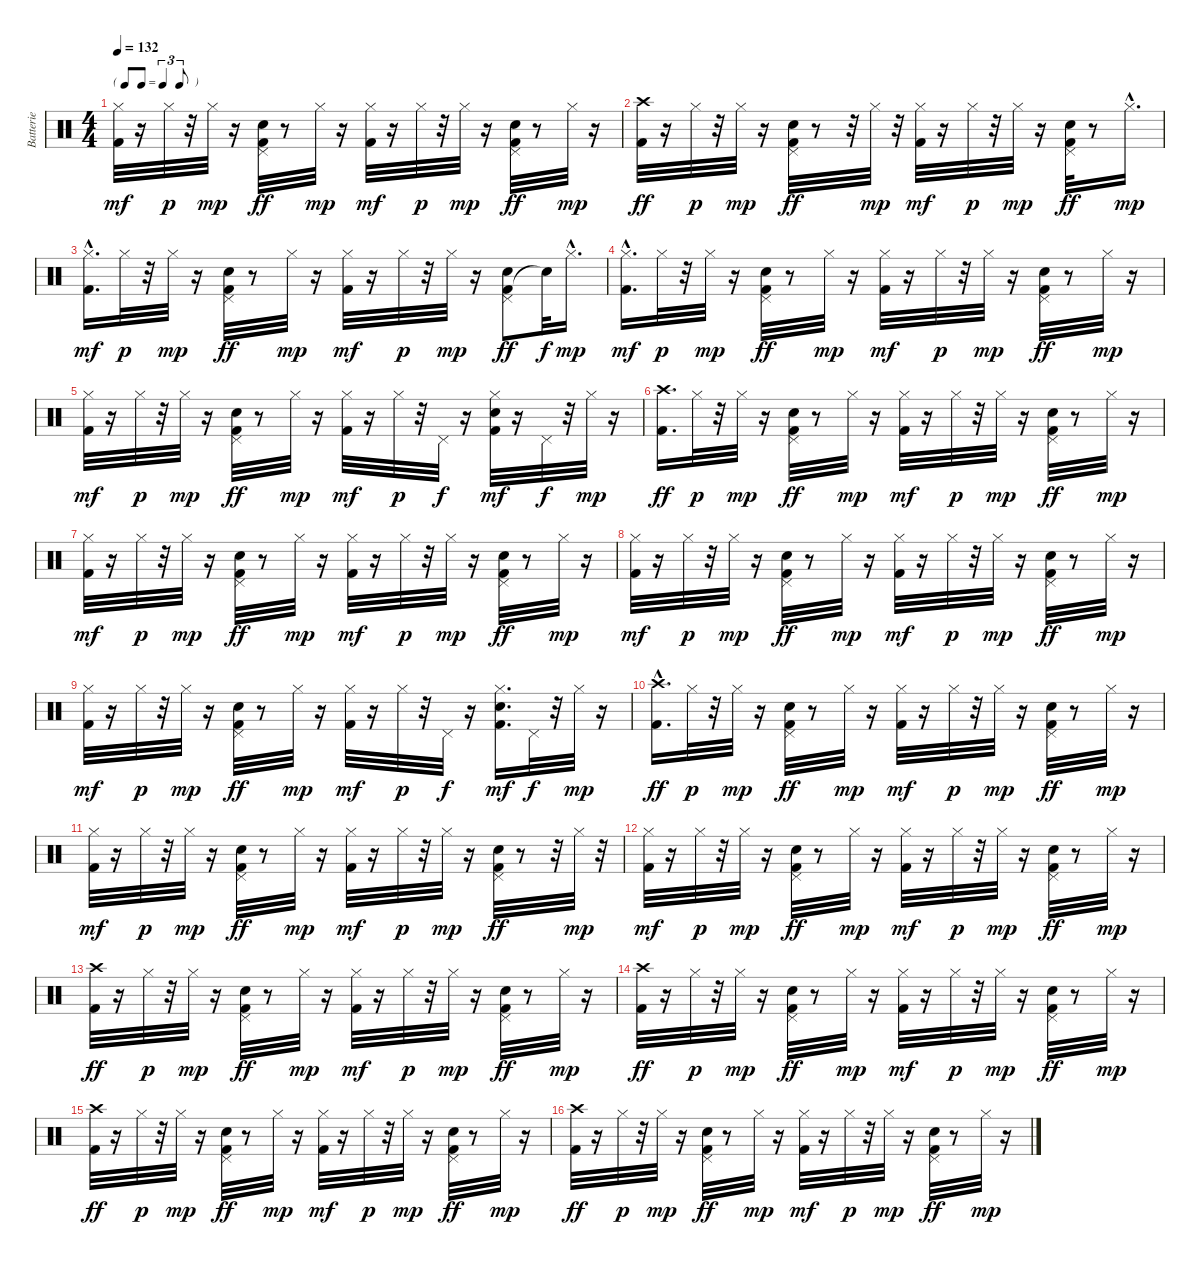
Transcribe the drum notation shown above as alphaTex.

\track ("Batterie" "Batterie") {instrument percussion}
\staff {score}
\articulation defaults
\ts (4 4)
\tf triplet8th
\tempo 132
\clef neutral
\ks c
("Kick (hit) 2" "Hi-Hat (closed)").32{dy mf} r.16 "Hi-Hat (closed)".32{dy p} r.32 "Hi-Hat (closed)".32{dy mp} r.16 ("Kick (hit) 2" "Snare (hit) 2" "Pedal Hi-Hat (hit)").32{dy ff} r.8 "Hi-Hat (closed)".32{dy mp} r.16 ("Kick (hit) 2" "Hi-Hat (closed)").32{dy mf} r.16 "Hi-Hat (closed)".32{dy p} r.32 "Hi-Hat (closed)".32{dy mp} r.16 ("Kick (hit) 2" "Snare (hit) 2" "Pedal Hi-Hat (hit)").32{dy ff} r.8 "Hi-Hat (closed)".32{dy mp} r.16 |
("Kick (hit) 2" "Crash high (hit)").32{dy ff} r.16 "Hi-Hat (closed)".32{dy p} r.32 "Hi-Hat (closed)".32{dy mp} r.16 ("Kick (hit) 2" "Snare (hit) 2" "Pedal Hi-Hat (hit)").32{dy ff} r.8 r.32 "Hi-Hat (closed)".32{dy mp} r.32 ("Kick (hit) 2" "Hi-Hat (closed)").32{dy mf} r.16 "Hi-Hat (closed)".32{dy p} r.32 "Hi-Hat (closed)".32{dy mp} r.16 ("Kick (hit) 2" "Snare (hit) 2" "Pedal Hi-Hat (hit)").32{dy ff} r.8 "Hi-Hat (closed)"{hac}.16{d dy mp} |
("Kick (hit) 2" "Hi-Hat (closed)"{hac}).16{d dy mf} "Hi-Hat (closed)".32{dy p} r.32 "Hi-Hat (closed)".32{dy mp} r.16 ("Kick (hit) 2" "Snare (hit) 2" "Pedal Hi-Hat (hit)").32{dy ff} r.8 "Hi-Hat (closed)".32{dy mp} r.16 ("Kick (hit) 2" "Hi-Hat (closed)").32{dy mf} r.16 "Hi-Hat (closed)".32{dy p} r.32 "Hi-Hat (closed)".32{dy mp} r.16 ("Kick (hit) 2" "Snare (hit) 2" "Pedal Hi-Hat (hit)").8{dy ff} "Snare (hit)"{t}.32{dy f} "Hi-Hat (closed)"{hac}.16{d dy mp} |
("Kick (hit) 2"{hac} "Hi-Hat (closed)"{hac}).16{d dy mf} "Hi-Hat (closed)".32{dy p} r.32 "Hi-Hat (closed)".32{dy mp} r.16 ("Kick (hit) 2" "Snare (hit) 2" "Pedal Hi-Hat (hit)").32{dy ff} r.8 "Hi-Hat (closed)".32{dy mp} r.16 ("Kick (hit) 2" "Hi-Hat (closed)").32{dy mf} r.16 "Hi-Hat (closed)".32{dy p} r.32 "Hi-Hat (closed)".32{dy mp} r.16 ("Kick (hit) 2" "Snare (hit) 2" "Pedal Hi-Hat (hit)").32{dy ff} r.8 "Hi-Hat (closed)".32{dy mp} r.16 |
("Kick (hit) 2" "Hi-Hat (closed)").32{dy mf} r.16 "Hi-Hat (closed)".32{dy p} r.32 "Hi-Hat (closed)".32{dy mp} r.16 ("Kick (hit) 2" "Snare (hit) 2" "Pedal Hi-Hat (hit)").32{dy ff} r.8 "Hi-Hat (closed)".32{dy mp} r.16 ("Kick (hit) 2" "Hi-Hat (closed)").32{dy mf} r.16 "Hi-Hat (closed)".32{dy p} r.32 "Pedal Hi-Hat (hit)".32{dy f} r.16 ("Kick (hit) 2" "Snare (hit) 2" "Hi-Hat (closed)").32{dy mf} r.16 "Pedal Hi-Hat (hit)".32{dy f} r.32 "Hi-Hat (closed)".32{dy mp} r.16 |
("Kick (hit) 2" "Crash high (hit)").16{d dy ff} "Hi-Hat (closed)".32{dy p} r.32 "Hi-Hat (closed)".32{dy mp} r.16 ("Kick (hit) 2" "Snare (hit) 2" "Pedal Hi-Hat (hit)").32{dy ff} r.8 "Hi-Hat (closed)".32{dy mp} r.16 ("Kick (hit) 2" "Hi-Hat (closed)").32{dy mf} r.16 "Hi-Hat (closed)".32{dy p} r.32 "Hi-Hat (closed)".32{dy mp} r.16 ("Kick (hit) 2" "Snare (hit) 2" "Pedal Hi-Hat (hit)").32{dy ff} r.8 "Hi-Hat (closed)".32{dy mp} r.16 |
("Kick (hit) 2" "Hi-Hat (closed)").32{dy mf} r.16 "Hi-Hat (closed)".32{dy p} r.32 "Hi-Hat (closed)".32{dy mp} r.16 ("Kick (hit) 2" "Snare (hit) 2" "Pedal Hi-Hat (hit)").32{dy ff} r.8 "Hi-Hat (closed)".32{dy mp} r.16 ("Kick (hit) 2" "Hi-Hat (closed)").32{dy mf} r.16 "Hi-Hat (closed)".32{dy p} r.32 "Hi-Hat (closed)".32{dy mp} r.16 ("Kick (hit) 2" "Snare (hit) 2" "Pedal Hi-Hat (hit)").32{dy ff} r.8 "Hi-Hat (closed)".32{dy mp} r.16 |
("Kick (hit) 2" "Hi-Hat (closed)").32{dy mf} r.16 "Hi-Hat (closed)".32{dy p} r.32 "Hi-Hat (closed)".32{dy mp} r.16 ("Kick (hit) 2" "Snare (hit) 2" "Pedal Hi-Hat (hit)").32{dy ff} r.8 "Hi-Hat (closed)".32{dy mp} r.16 ("Kick (hit) 2" "Hi-Hat (closed)").32{dy mf} r.16 "Hi-Hat (closed)".32{dy p} r.32 "Hi-Hat (closed)".32{dy mp} r.16 ("Kick (hit) 2" "Snare (hit) 2" "Pedal Hi-Hat (hit)").32{dy ff} r.8 "Hi-Hat (closed)".32{dy mp} r.16 |
("Kick (hit) 2" "Hi-Hat (closed)").32{dy mf} r.16 "Hi-Hat (closed)".32{dy p} r.32 "Hi-Hat (closed)".32{dy mp} r.16 ("Kick (hit) 2" "Snare (hit) 2" "Pedal Hi-Hat (hit)").32{dy ff} r.8 "Hi-Hat (closed)".32{dy mp} r.16 ("Kick (hit) 2" "Hi-Hat (closed)").32{dy mf} r.16 "Hi-Hat (closed)".32{dy p} r.32 "Pedal Hi-Hat (hit)".32{dy f} r.16 ("Kick (hit) 2" "Snare (hit) 2" "Hi-Hat (closed)").16{d dy mf} "Pedal Hi-Hat (hit)".32{dy f} r.32 "Hi-Hat (closed)".32{dy mp} r.16 |
("Kick (hit) 2"{hac} "Crash high (hit)"{hac}).16{d dy ff} "Hi-Hat (closed)".32{dy p} r.32 "Hi-Hat (closed)".32{dy mp} r.16 ("Kick (hit) 2" "Snare (hit) 2" "Pedal Hi-Hat (hit)").32{dy ff} r.8 "Hi-Hat (closed)".32{dy mp} r.16 ("Kick (hit) 2" "Hi-Hat (closed)").32{dy mf} r.16 "Hi-Hat (closed)".32{dy p} r.32 "Hi-Hat (closed)".32{dy mp} r.16 ("Kick (hit) 2" "Snare (hit) 2" "Pedal Hi-Hat (hit)").32{dy ff} r.8 "Hi-Hat (closed)".32{dy mp} r.16 |
("Kick (hit) 2" "Hi-Hat (closed)").32{dy mf} r.16 "Hi-Hat (closed)".32{dy p} r.32 "Hi-Hat (closed)".32{dy mp} r.16 ("Kick (hit) 2" "Snare (hit) 2" "Pedal Hi-Hat (hit)").32{dy ff} r.8 "Hi-Hat (closed)".32{dy mp} r.16 ("Kick (hit) 2" "Hi-Hat (closed)").32{dy mf} r.16 "Hi-Hat (closed)".32{dy p} r.32 "Hi-Hat (closed)".32{dy mp} r.16 ("Kick (hit) 2" "Snare (hit) 2" "Pedal Hi-Hat (hit)").32{dy ff} r.8 r.32 "Hi-Hat (closed)".32{dy mp} r.32 |
("Kick (hit) 2" "Hi-Hat (closed)").32{dy mf} r.16 "Hi-Hat (closed)".32{dy p} r.32 "Hi-Hat (closed)".32{dy mp} r.16 ("Kick (hit) 2" "Snare (hit) 2" "Pedal Hi-Hat (hit)").32{dy ff} r.8 "Hi-Hat (closed)".32{dy mp} r.16 ("Kick (hit) 2" "Hi-Hat (closed)").32{dy mf} r.16 "Hi-Hat (closed)".32{dy p} r.32 "Hi-Hat (closed)".32{dy mp} r.16 ("Kick (hit) 2" "Snare (hit) 2" "Pedal Hi-Hat (hit)").32{dy ff} r.8 "Hi-Hat (closed)".32{dy mp} r.16 |
("Kick (hit) 2" "Crash high (hit)").32{dy ff} r.16 "Hi-Hat (closed)".32{dy p} r.32 "Hi-Hat (closed)".32{dy mp} r.16 ("Kick (hit) 2" "Snare (hit) 2" "Pedal Hi-Hat (hit)").32{dy ff} r.8 "Hi-Hat (closed)".32{dy mp} r.16 ("Kick (hit) 2" "Hi-Hat (closed)").32{dy mf} r.16 "Hi-Hat (closed)".32{dy p} r.32 "Hi-Hat (closed)".32{dy mp} r.16 ("Kick (hit) 2" "Snare (hit) 2" "Pedal Hi-Hat (hit)").32{dy ff} r.8 "Hi-Hat (closed)".32{dy mp} r.16 |
("Kick (hit) 2" "Crash high (hit)").32{dy ff} r.16 "Hi-Hat (closed)".32{dy p} r.32 "Hi-Hat (closed)".32{dy mp} r.16 ("Kick (hit) 2" "Snare (hit) 2" "Pedal Hi-Hat (hit)").32{dy ff} r.8 "Hi-Hat (closed)".32{dy mp} r.16 ("Kick (hit) 2" "Hi-Hat (closed)").32{dy mf} r.16 "Hi-Hat (closed)".32{dy p} r.32 "Hi-Hat (closed)".32{dy mp} r.16 ("Kick (hit) 2" "Snare (hit) 2" "Pedal Hi-Hat (hit)").32{dy ff} r.8 "Hi-Hat (closed)".32{dy mp} r.16 |
("Kick (hit) 2" "Crash high (hit)").32{dy ff} r.16 "Hi-Hat (closed)".32{dy p} r.32 "Hi-Hat (closed)".32{dy mp} r.16 ("Kick (hit) 2" "Snare (hit) 2" "Pedal Hi-Hat (hit)").32{dy ff} r.8 "Hi-Hat (closed)".32{dy mp} r.16 ("Kick (hit) 2" "Hi-Hat (closed)").32{dy mf} r.16 "Hi-Hat (closed)".32{dy p} r.32 "Hi-Hat (closed)".32{dy mp} r.16 ("Kick (hit) 2" "Snare (hit) 2" "Pedal Hi-Hat (hit)").32{dy ff} r.8 "Hi-Hat (closed)".32{dy mp} r.16 |
("Kick (hit) 2" "Crash high (hit)").32{dy ff} r.16 "Hi-Hat (closed)".32{dy p} r.32 "Hi-Hat (closed)".32{dy mp} r.16 ("Kick (hit) 2" "Snare (hit) 2" "Pedal Hi-Hat (hit)").32{dy ff} r.8 "Hi-Hat (closed)".32{dy mp} r.16 ("Kick (hit) 2" "Hi-Hat (closed)").32{dy mf} r.16 "Hi-Hat (closed)".32{dy p} r.32 "Hi-Hat (closed)".32{dy mp} r.16 ("Kick (hit) 2" "Snare (hit) 2" "Pedal Hi-Hat (hit)").32{dy ff} r.8 "Hi-Hat (closed)".32{dy mp} r.16
